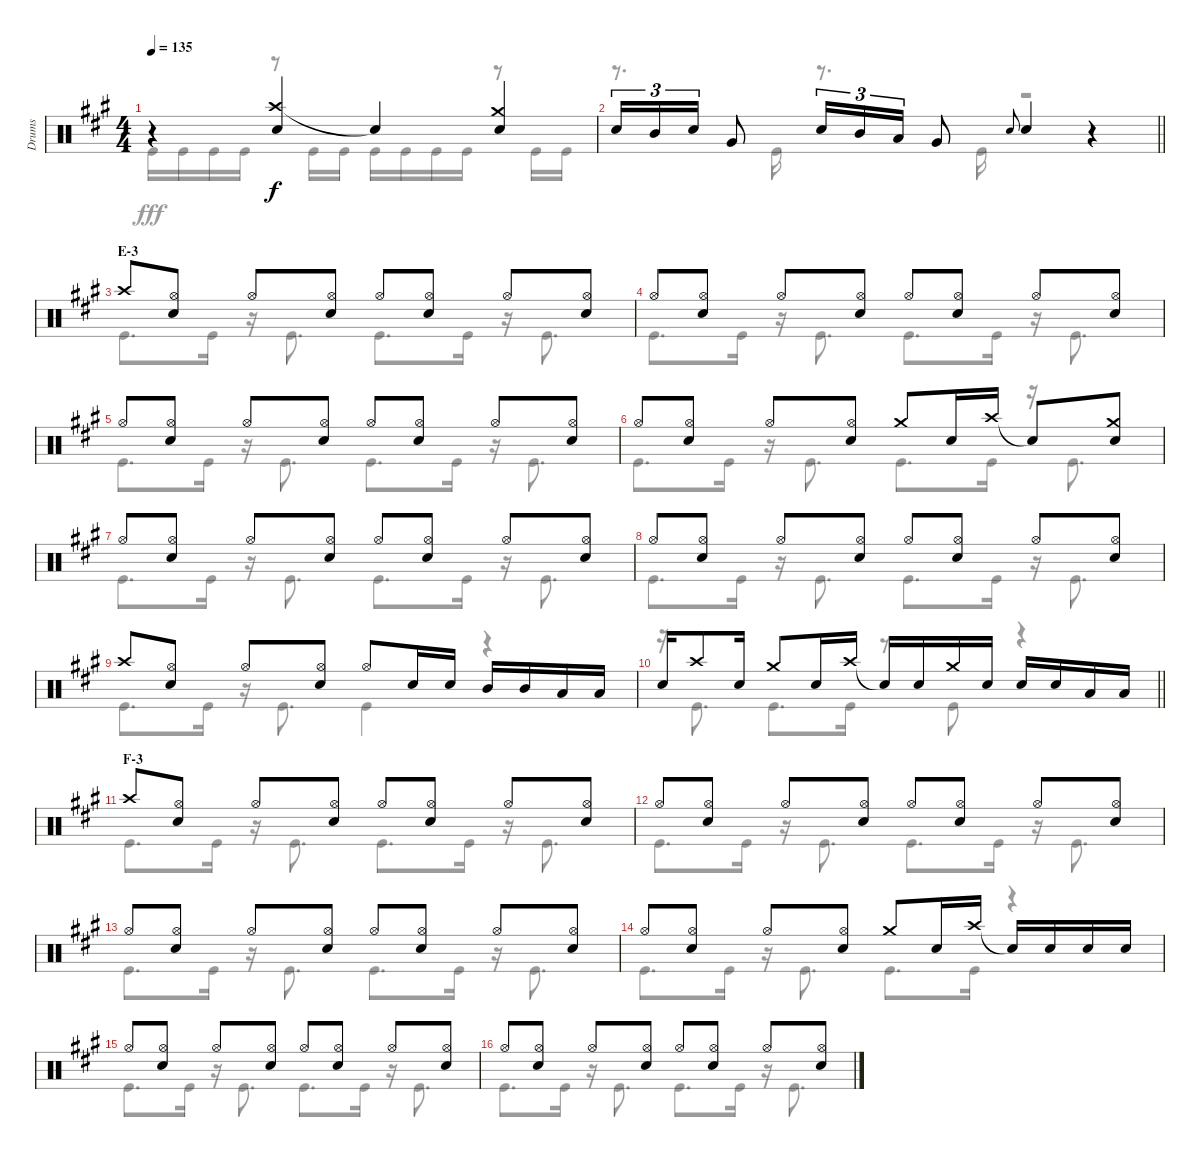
\track ("Drums" "Drums") {instrument percussion}
\staff {score}
\articulation defaults
\voice
\ts (4 4)
\tempo 135
\clef neutral
\ks a
r.4{dy f} ("Crash high (hit)" "Snare (hit) 2").4 "Snare (hit)"{t}.4 ("Crash medium (hit)" "Snare (hit) 2").4 |
\barLineRight lightlight "Snare (hit) 2".16{tu (3 2)} "Mid Tom (hit)".16{tu (3 2)} "Snare (hit) 2".16{tu (3 2)} "Very Low Tom (hit)".8 "Snare (hit) 2".16{tu (3 2)} "Mid Tom (hit)".16{tu (3 2)} "Low Tom (hit)".16{tu (3 2)} "Very Low Tom (hit)".8 "Snare (hit) 2".8{gr onbeat} "Snare (hit) 2".4
r.4 |
\section ("" "E-3")
"Crash high (hit)".8 ("Hi-Hat (open)" "Snare (hit) 2").8 "Hi-Hat (open)".8 ("Hi-Hat (open)" "Snare (hit) 2").8 "Hi-Hat (open)".8 ("Hi-Hat (open)" "Snare (hit) 2").8 "Hi-Hat (open)".8 ("Hi-Hat (open)" "Snare (hit) 2").8 |
"Hi-Hat (open)".8 ("Hi-Hat (open)" "Snare (hit) 2").8 "Hi-Hat (open)".8 ("Hi-Hat (open)" "Snare (hit) 2").8 "Hi-Hat (open)".8 ("Hi-Hat (open)" "Snare (hit) 2").8 "Hi-Hat (open)".8 ("Hi-Hat (open)" "Snare (hit) 2").8 |
"Hi-Hat (open)".8 ("Hi-Hat (open)" "Snare (hit) 2").8 "Hi-Hat (open)".8 ("Hi-Hat (open)" "Snare (hit) 2").8 "Hi-Hat (open)".8 ("Hi-Hat (open)" "Snare (hit) 2").8 "Hi-Hat (open)".8 ("Hi-Hat (open)" "Snare (hit) 2").8 |
"Hi-Hat (open)".8 ("Hi-Hat (open)" "Snare (hit) 2").8 "Hi-Hat (open)".8 ("Hi-Hat (open)" "Snare (hit) 2").8 "Crash medium (hit)".8 "Snare (hit) 2".16 "Crash high (hit)".16 "Snare (hit)"{t}.8 ("Crash medium (hit)" "Snare (hit) 2").8 |
"Hi-Hat (open)".8 ("Hi-Hat (open)" "Snare (hit) 2").8 "Hi-Hat (open)".8 ("Hi-Hat (open)" "Snare (hit) 2").8 "Hi-Hat (open)".8 ("Hi-Hat (open)" "Snare (hit) 2").8 "Hi-Hat (open)".8 ("Hi-Hat (open)" "Snare (hit) 2").8 |
"Hi-Hat (open)".8 ("Hi-Hat (open)" "Snare (hit) 2").8 "Hi-Hat (open)".8 ("Hi-Hat (open)" "Snare (hit) 2").8 "Hi-Hat (open)".8 ("Hi-Hat (open)" "Snare (hit) 2").8 "Hi-Hat (open)".8 ("Hi-Hat (open)" "Snare (hit) 2").8 |
"Crash high (hit)".8 ("Hi-Hat (open)" "Snare (hit) 2").8 "Hi-Hat (open)".8 ("Hi-Hat (open)" "Snare (hit) 2").8 "Hi-Hat (open)".8 "Snare (hit) 2".16 "Snare (hit) 2".16 "Mid Tom (hit)".16 "Mid Tom (hit)".16 "Low Tom (hit)".16 "Low Tom (hit)".16 |
\barLineRight lightlight "Snare (hit) 2".16 "Crash high (hit)".8 "Snare (hit) 2".16 "Crash medium (hit)".8 "Snare (hit) 2".16 "Crash high (hit)".16 "Snare (hit)"{t}.16 "Snare (hit) 2".16 "Crash medium (hit)".16 "Snare (hit) 2".16 "Snare (hit) 2".16 "Snare (hit) 2".16 "Low Tom (hit)".16 "Low Tom (hit)".16
|
\section ("" "F-3")
"Crash high (hit)".8 ("Hi-Hat (open)" "Snare (hit) 2").8 "Hi-Hat (open)".8 ("Hi-Hat (open)" "Snare (hit) 2").8 "Hi-Hat (open)".8 ("Hi-Hat (open)" "Snare (hit) 2").8 "Hi-Hat (open)".8 ("Hi-Hat (open)" "Snare (hit) 2").8 |
"Hi-Hat (open)".8 ("Hi-Hat (open)" "Snare (hit) 2").8 "Hi-Hat (open)".8 ("Hi-Hat (open)" "Snare (hit) 2").8 "Hi-Hat (open)".8 ("Hi-Hat (open)" "Snare (hit) 2").8 "Hi-Hat (open)".8 ("Hi-Hat (open)" "Snare (hit) 2").8 |
"Hi-Hat (open)".8 ("Hi-Hat (open)" "Snare (hit) 2").8 "Hi-Hat (open)".8 ("Hi-Hat (open)" "Snare (hit) 2").8 "Hi-Hat (open)".8 ("Hi-Hat (open)" "Snare (hit) 2").8 "Hi-Hat (open)".8 ("Hi-Hat (open)" "Snare (hit) 2").8 |
"Hi-Hat (open)".8 ("Hi-Hat (open)" "Snare (hit) 2").8 "Hi-Hat (open)".8 ("Hi-Hat (open)" "Snare (hit) 2").8 "Crash medium (hit)".8 "Snare (hit) 2".16 "Crash high (hit)".16 "Snare (hit)"{t}.16 "Snare (hit) 2".16 "Snare (hit) 2".16 "Snare (hit) 2".16 |
"Hi-Hat (open)".8 ("Hi-Hat (open)" "Snare (hit) 2").8 "Hi-Hat (open)".8 ("Hi-Hat (open)" "Snare (hit) 2").8 "Hi-Hat (open)".8 ("Hi-Hat (open)" "Snare (hit) 2").8 "Hi-Hat (open)".8 ("Hi-Hat (open)" "Snare (hit) 2").8 |
"Hi-Hat (open)".8 ("Hi-Hat (open)" "Snare (hit) 2").8 "Hi-Hat (open)".8 ("Hi-Hat (open)" "Snare (hit) 2").8 "Hi-Hat (open)".8 ("Hi-Hat (open)" "Snare (hit) 2").8 "Hi-Hat (open)".8 ("Hi-Hat (open)" "Snare (hit) 2").8
\voice
\clef neutral
\ottava regular
\simile none
\ks a "Kick (hit)".16{dy fff} "Kick (hit)".16 "Kick (hit)".16 "Kick (hit)".16
r.8 "Kick (hit)".16 "Kick (hit)".16 "Kick (hit)".16 "Kick (hit)".16 "Kick (hit)".16 "Kick (hit)".16 r.8 "Kick (hit)".16 "Kick (hit)".16 |
\barLineRight lightlight
r.8{d} "Kick (hit)".16 r.8{d} "Kick (hit)".16 r.2 |
"Kick (hit)".8{d} "Kick (hit)".16 r.16 "Kick (hit)".8{d} "Kick (hit)".8{d} "Kick (hit)".16 r.16 "Kick (hit)".8{d} |
"Kick (hit)".8{d} "Kick (hit)".16 r.16 "Kick (hit)".8{d} "Kick (hit)".8{d} "Kick (hit)".16 r.16 "Kick (hit)".8{d} |
"Kick (hit)".8{d} "Kick (hit)".16 r.16 "Kick (hit)".8{d} "Kick (hit)".8{d} "Kick (hit)".16 r.16 "Kick (hit)".8{d} |
"Kick (hit)".8{d} "Kick (hit)".16 r.16 "Kick (hit)".8{d} "Kick (hit)".8{d} "Kick (hit)".16 r.16 "Kick (hit)".8{d} |
"Kick (hit)".8{d} "Kick (hit)".16 r.16 "Kick (hit)".8{d} "Kick (hit)".8{d} "Kick (hit)".16 r.16 "Kick (hit)".8{d} |
"Kick (hit)".8{d} "Kick (hit)".16 r.16 "Kick (hit)".8{d} "Kick (hit)".8{d} "Kick (hit)".16 r.16 "Kick (hit)".8{d} |
"Kick (hit)".8{d} "Kick (hit)".16 r.16 "Kick (hit)".8{d} "Kick (hit)".4 r.4 |
\barLineRight lightlight
r.16 "Kick (hit)".8{d} "Kick (hit)".8{d} "Kick (hit)".16 r.8 "Kick (hit)".8 r.4 |
"Kick (hit)".8{d} "Kick (hit)".16 r.16 "Kick (hit)".8{d} "Kick (hit)".8{d} "Kick (hit)".16 r.16 "Kick (hit)".8{d} |
"Kick (hit)".8{d} "Kick (hit)".16 r.16 "Kick (hit)".8{d} "Kick (hit)".8{d} "Kick (hit)".16 r.16 "Kick (hit)".8{d} |
"Kick (hit)".8{d} "Kick (hit)".16 r.16 "Kick (hit)".8{d} "Kick (hit)".8{d} "Kick (hit)".16 r.16 "Kick (hit)".8{d} |
"Kick (hit)".8{d} "Kick (hit)".16 r.16 "Kick (hit)".8{d} "Kick (hit)".8{d} "Kick (hit)".16 r.4 |
"Kick (hit)".8{d} "Kick (hit)".16 r.16 "Kick (hit)".8{d} "Kick (hit)".8{d} "Kick (hit)".16 r.16 "Kick (hit)".8{d} |
"Kick (hit)".8{d} "Kick (hit)".16 r.16 "Kick (hit)".8{d} "Kick (hit)".8{d} "Kick (hit)".16 r.16 "Kick (hit)".8{d}
